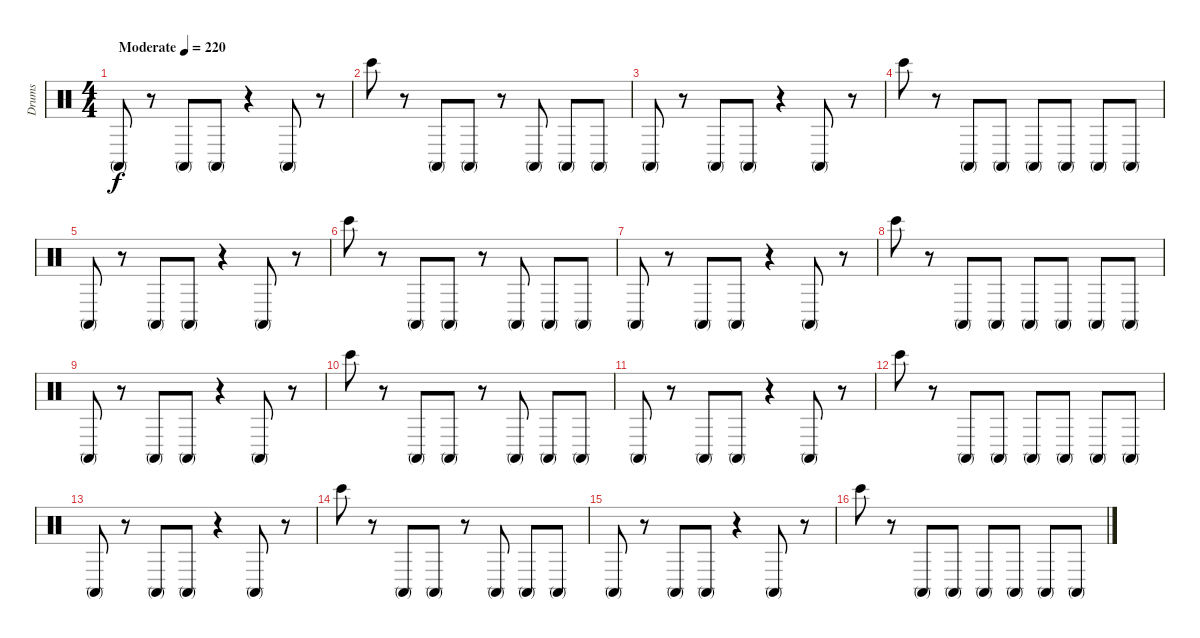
\track ("Drums" "Drums") {instrument percussion}
\staff {score}
\articulation defaults
\ts (4 4)
\tempo (220 "Moderate")
\clef neutral
\ks c "Conga high (mute)".8{dy f}
r.8 "Conga high (mute)".8 "Conga high (mute)".8 r.4 "Conga high (mute)".8 r.8 |
"Bongo High (hit)".8 r.8 "Conga high (mute)".8 "Conga high (mute)".8 r.8 "Conga high (mute)".8 "Conga high (mute)".8 "Conga high (mute)".8 |
"Conga high (mute)".8 r.8 "Conga high (mute)".8 "Conga high (mute)".8 r.4 "Conga high (mute)".8 r.8 |
"Bongo High (hit)".8 r.8 "Conga high (mute)".8 "Conga high (mute)".8 "Conga high (mute)".8 "Conga high (mute)".8 "Conga high (mute)".8 "Conga high (mute)".8 |
"Conga high (mute)".8 r.8 "Conga high (mute)".8 "Conga high (mute)".8 r.4 "Conga high (mute)".8 r.8 |
"Bongo High (hit)".8 r.8 "Conga high (mute)".8 "Conga high (mute)".8 r.8 "Conga high (mute)".8 "Conga high (mute)".8 "Conga high (mute)".8 |
"Conga high (mute)".8 r.8 "Conga high (mute)".8 "Conga high (mute)".8 r.4 "Conga high (mute)".8 r.8 |
"Bongo High (hit)".8 r.8 "Conga high (mute)".8 "Conga high (mute)".8 "Conga high (mute)".8 "Conga high (mute)".8 "Conga high (mute)".8 "Conga high (mute)".8 |
"Conga high (mute)".8 r.8 "Conga high (mute)".8 "Conga high (mute)".8 r.4 "Conga high (mute)".8 r.8 |
"Bongo High (hit)".8 r.8 "Conga high (mute)".8 "Conga high (mute)".8 r.8 "Conga high (mute)".8 "Conga high (mute)".8 "Conga high (mute)".8 |
"Conga high (mute)".8 r.8 "Conga high (mute)".8 "Conga high (mute)".8 r.4 "Conga high (mute)".8 r.8 |
"Bongo High (hit)".8 r.8 "Conga high (mute)".8 "Conga high (mute)".8 "Conga high (mute)".8 "Conga high (mute)".8 "Conga high (mute)".8 "Conga high (mute)".8 |
"Conga high (mute)".8 r.8 "Conga high (mute)".8 "Conga high (mute)".8 r.4 "Conga high (mute)".8 r.8 |
"Bongo High (hit)".8 r.8 "Conga high (mute)".8 "Conga high (mute)".8 r.8 "Conga high (mute)".8 "Conga high (mute)".8 "Conga high (mute)".8 |
"Conga high (mute)".8 r.8 "Conga high (mute)".8 "Conga high (mute)".8 r.4 "Conga high (mute)".8 r.8 |
"Bongo High (hit)".8 r.8 "Conga high (mute)".8 "Conga high (mute)".8 "Conga high (mute)".8 "Conga high (mute)".8 "Conga high (mute)".8 "Conga high (mute)".8
